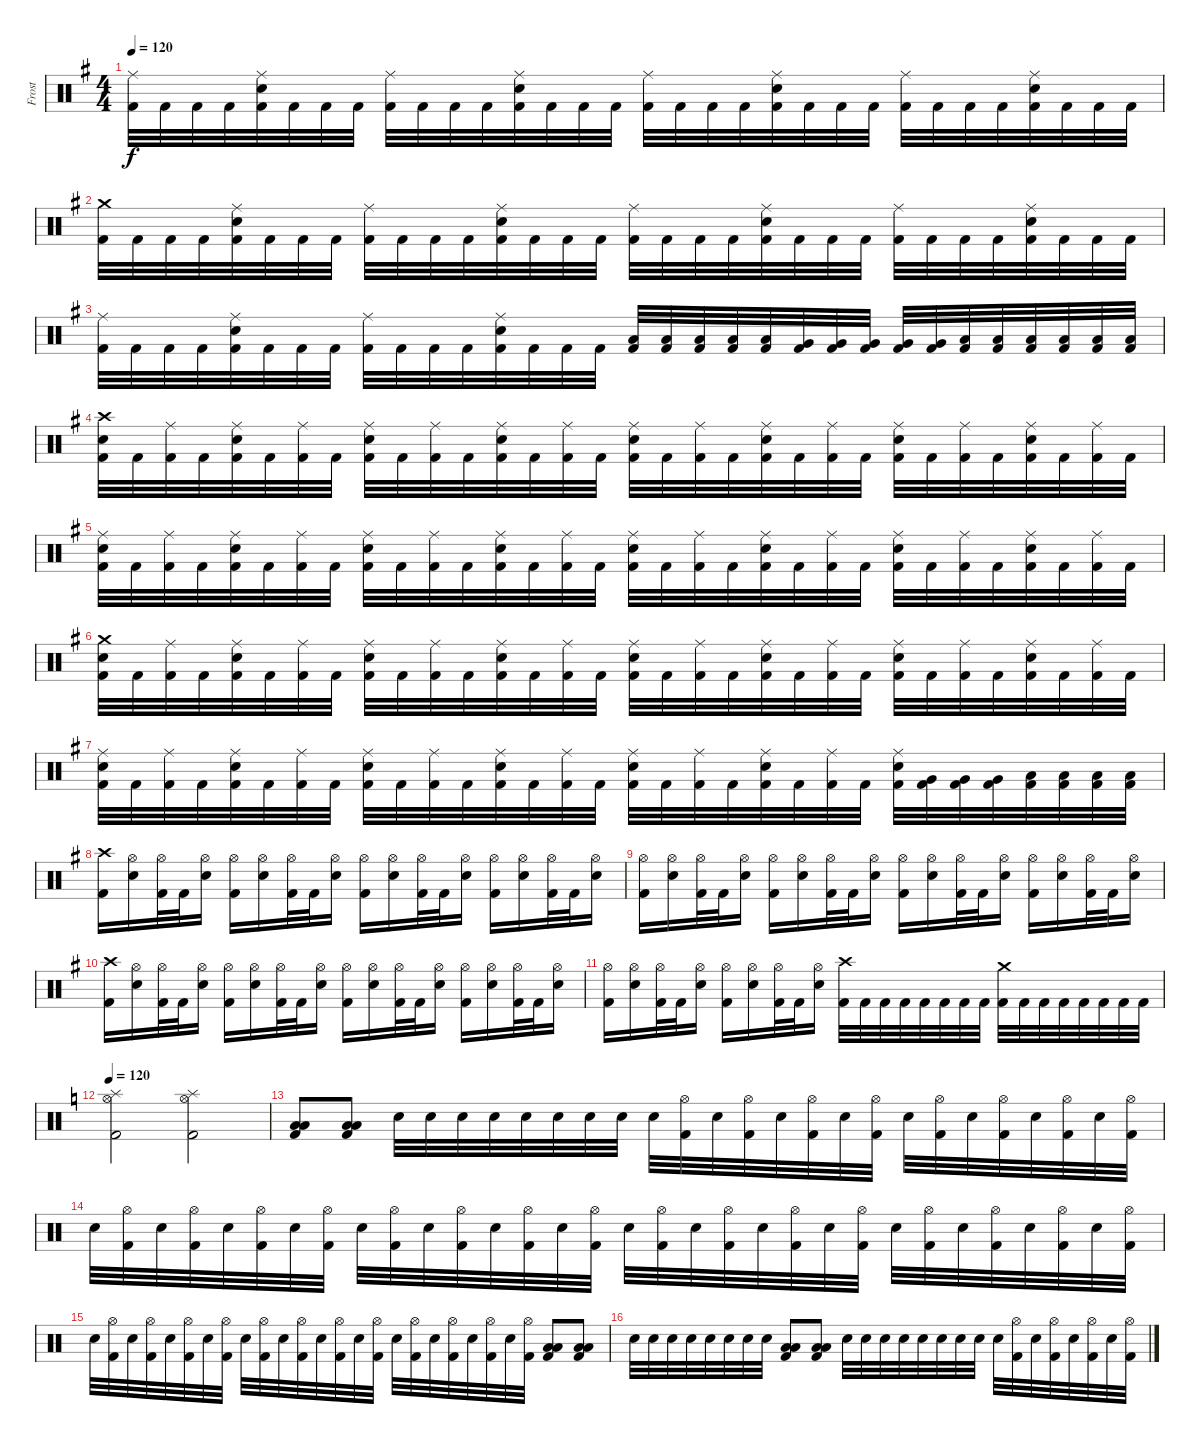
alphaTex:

\track ("Frost" "Frost") {instrument percussion}
\staff {score}
\articulation defaults
\ts (4 4)
\tempo 120
\clef neutral
\ks g
("Ride (middle)" "Kick (hit) 2").32{dy f} "Kick (hit) 2".32 "Kick (hit) 2".32 "Kick (hit) 2".32 ("Ride (middle)" "Snare (hit) 2" "Kick (hit) 2").32 "Kick (hit) 2".32 "Kick (hit) 2".32 "Kick (hit) 2".32 ("Ride (middle)" "Kick (hit) 2").32 "Kick (hit) 2".32 "Kick (hit) 2".32 "Kick (hit) 2".32 ("Ride (middle)" "Snare (hit) 2" "Kick (hit) 2").32 "Kick (hit) 2".32 "Kick (hit) 2".32 "Kick (hit) 2".32 ("Ride (middle)" "Kick (hit) 2").32 "Kick (hit) 2".32 "Kick (hit) 2".32 "Kick (hit) 2".32 ("Ride (middle)" "Snare (hit) 2" "Kick (hit) 2").32 "Kick (hit) 2".32 "Kick (hit) 2".32 "Kick (hit) 2".32 ("Ride (middle)" "Kick (hit) 2").32 "Kick (hit) 2".32 "Kick (hit) 2".32 "Kick (hit) 2".32 ("Ride (middle)" "Snare (hit) 2" "Kick (hit) 2").32 "Kick (hit) 2".32 "Kick (hit) 2".32 "Kick (hit) 2".32 |
("Crash medium (hit)" "Kick (hit) 2").32 "Kick (hit) 2".32 "Kick (hit) 2".32 "Kick (hit) 2".32 ("Ride (middle)" "Snare (hit) 2" "Kick (hit) 2").32 "Kick (hit) 2".32 "Kick (hit) 2".32 "Kick (hit) 2".32 ("Ride (middle)" "Kick (hit) 2").32 "Kick (hit) 2".32 "Kick (hit) 2".32 "Kick (hit) 2".32 ("Ride (middle)" "Snare (hit) 2" "Kick (hit) 2").32 "Kick (hit) 2".32 "Kick (hit) 2".32 "Kick (hit) 2".32 ("Ride (middle)" "Kick (hit) 2").32 "Kick (hit) 2".32 "Kick (hit) 2".32 "Kick (hit) 2".32 ("Ride (middle)" "Snare (hit) 2" "Kick (hit) 2").32 "Kick (hit) 2".32 "Kick (hit) 2".32 "Kick (hit) 2".32 ("Ride (middle)" "Kick (hit) 2").32 "Kick (hit) 2".32 "Kick (hit) 2".32 "Kick (hit) 2".32 ("Ride (middle)" "Snare (hit) 2" "Kick (hit) 2").32 "Kick (hit) 2".32 "Kick (hit) 2".32 "Kick (hit) 2".32 |
("Ride (middle)" "Kick (hit) 2").32 "Kick (hit) 2".32 "Kick (hit) 2".32 "Kick (hit) 2".32 ("Ride (middle)" "Snare (hit) 2" "Kick (hit) 2").32 "Kick (hit) 2".32 "Kick (hit) 2".32 "Kick (hit) 2".32 ("Ride (middle)" "Kick (hit) 2").32 "Kick (hit) 2".32 "Kick (hit) 2".32 "Kick (hit) 2".32 ("Ride (middle)" "Snare (hit) 2" "Kick (hit) 2").32 "Kick (hit) 2".32 "Kick (hit) 2".32 "Kick (hit) 2".32 ("Low Tom (hit)" "Kick (hit) 2").32 ("Low Tom (hit)" "Kick (hit) 2").32 ("Low Tom (hit)" "Kick (hit) 2").32 ("Low Tom (hit)" "Kick (hit) 2").32 ("Low Tom (hit)" "Kick (hit) 2").32 ("Very Low Tom (hit)" "Kick (hit) 2").32 ("Very Low Tom (hit)" "Kick (hit) 2").32 ("Very Low Tom (hit)" "Kick (hit) 2").32 ("Very Low Tom (hit)" "Kick (hit) 2").32 ("Very Low Tom (hit)" "Kick (hit) 2").32 ("Low Floor Tom (hit)" "Kick (hit) 2").32 ("Low Floor Tom (hit)" "Kick (hit) 2").32 ("Low Floor Tom (hit)" "Kick (hit) 2").32 ("Low Floor Tom (hit)" "Kick (hit) 2").32 ("Low Floor Tom (hit)" "Kick (hit) 2").32 ("Low Floor Tom (hit)" "Kick (hit) 2").32 |
("Crash high (hit)" "Snare (hit) 2" "Kick (hit) 2").32 "Kick (hit) 2".32 ("Ride (middle)" "Kick (hit) 2").32 "Kick (hit) 2".32 ("Ride (middle)" "Snare (hit) 2" "Kick (hit) 2").32 "Kick (hit) 2".32 ("Ride (middle)" "Kick (hit) 2").32 "Kick (hit) 2".32 ("Ride (middle)" "Snare (hit) 2" "Kick (hit) 2").32 "Kick (hit) 2".32 ("Ride (middle)" "Kick (hit) 2").32 "Kick (hit) 2".32 ("Ride (middle)" "Snare (hit) 2" "Kick (hit) 2").32 "Kick (hit) 2".32 ("Ride (middle)" "Kick (hit) 2").32 "Kick (hit) 2".32 ("Ride (middle)" "Snare (hit) 2" "Kick (hit) 2").32 "Kick (hit) 2".32 ("Ride (middle)" "Kick (hit) 2").32 "Kick (hit) 2".32 ("Ride (middle)" "Snare (hit) 2" "Kick (hit) 2").32 "Kick (hit) 2".32 ("Ride (middle)" "Kick (hit) 2").32 "Kick (hit) 2".32 ("Ride (middle)" "Snare (hit) 2" "Kick (hit) 2").32 "Kick (hit) 2".32 ("Ride (middle)" "Kick (hit) 2").32 "Kick (hit) 2".32 ("Ride (middle)" "Snare (hit) 2" "Kick (hit) 2").32 "Kick (hit) 2".32 ("Ride (middle)" "Kick (hit) 2").32 "Kick (hit) 2".32 |
("Ride (middle)" "Snare (hit) 2" "Kick (hit) 2").32 "Kick (hit) 2".32 ("Ride (middle)" "Kick (hit) 2").32 "Kick (hit) 2".32 ("Ride (middle)" "Snare (hit) 2" "Kick (hit) 2").32 "Kick (hit) 2".32 ("Ride (middle)" "Kick (hit) 2").32 "Kick (hit) 2".32 ("Ride (middle)" "Snare (hit) 2" "Kick (hit) 2").32 "Kick (hit) 2".32 ("Ride (middle)" "Kick (hit) 2").32 "Kick (hit) 2".32 ("Ride (middle)" "Snare (hit) 2" "Kick (hit) 2").32 "Kick (hit) 2".32 ("Ride (middle)" "Kick (hit) 2").32 "Kick (hit) 2".32 ("Ride (middle)" "Snare (hit) 2" "Kick (hit) 2").32 "Kick (hit) 2".32 ("Ride (middle)" "Kick (hit) 2").32 "Kick (hit) 2".32 ("Ride (middle)" "Snare (hit) 2" "Kick (hit) 2").32 "Kick (hit) 2".32 ("Ride (middle)" "Kick (hit) 2").32 "Kick (hit) 2".32 ("Ride (middle)" "Snare (hit) 2" "Kick (hit) 2").32 "Kick (hit) 2".32 ("Ride (middle)" "Kick (hit) 2").32 "Kick (hit) 2".32 ("Ride (middle)" "Snare (hit) 2" "Kick (hit) 2").32 "Kick (hit) 2".32 ("Ride (middle)" "Kick (hit) 2").32 "Kick (hit) 2".32 |
("Crash medium (hit)" "Snare (hit) 2" "Kick (hit) 2").32 "Kick (hit) 2".32 ("Ride (middle)" "Kick (hit) 2").32 "Kick (hit) 2".32 ("Ride (middle)" "Snare (hit) 2" "Kick (hit) 2").32 "Kick (hit) 2".32 ("Ride (middle)" "Kick (hit) 2").32 "Kick (hit) 2".32 ("Ride (middle)" "Snare (hit) 2" "Kick (hit) 2").32 "Kick (hit) 2".32 ("Ride (middle)" "Kick (hit) 2").32 "Kick (hit) 2".32 ("Ride (middle)" "Snare (hit) 2" "Kick (hit) 2").32 "Kick (hit) 2".32 ("Ride (middle)" "Kick (hit) 2").32 "Kick (hit) 2".32 ("Ride (middle)" "Snare (hit) 2" "Kick (hit) 2").32 "Kick (hit) 2".32 ("Ride (middle)" "Kick (hit) 2").32 "Kick (hit) 2".32 ("Ride (middle)" "Snare (hit) 2" "Kick (hit) 2").32 "Kick (hit) 2".32 ("Ride (middle)" "Kick (hit) 2").32 "Kick (hit) 2".32 ("Ride (middle)" "Snare (hit) 2" "Kick (hit) 2").32 "Kick (hit) 2".32 ("Ride (middle)" "Kick (hit) 2").32 "Kick (hit) 2".32 ("Ride (middle)" "Snare (hit) 2" "Kick (hit) 2").32 "Kick (hit) 2".32 ("Ride (middle)" "Kick (hit) 2").32 "Kick (hit) 2".32 |
("Ride (middle)" "Snare (hit) 2" "Kick (hit) 2").32 "Kick (hit) 2".32 ("Ride (middle)" "Kick (hit) 2").32 "Kick (hit) 2".32 ("Ride (middle)" "Snare (hit) 2" "Kick (hit) 2").32 "Kick (hit) 2".32 ("Ride (middle)" "Kick (hit) 2").32 "Kick (hit) 2".32 ("Ride (middle)" "Snare (hit) 2" "Kick (hit) 2").32 "Kick (hit) 2".32 ("Ride (middle)" "Kick (hit) 2").32 "Kick (hit) 2".32 ("Ride (middle)" "Snare (hit) 2" "Kick (hit) 2").32 "Kick (hit) 2".32 ("Ride (middle)" "Kick (hit) 2").32 "Kick (hit) 2".32 ("Ride (middle)" "Snare (hit) 2" "Kick (hit) 2").32 "Kick (hit) 2".32 ("Ride (middle)" "Kick (hit) 2").32 "Kick (hit) 2".32 ("Ride (middle)" "Snare (hit) 2" "Kick (hit) 2").32 "Kick (hit) 2".32 ("Ride (middle)" "Kick (hit) 2").32 "Kick (hit) 2".32 ("Ride (middle)" "Snare (hit) 2" "Kick (hit) 2").32 ("Very Low Tom (hit)" "Kick (hit) 2").32 ("Very Low Tom (hit)" "Kick (hit) 2").32 ("Very Low Tom (hit)" "Kick (hit) 2").32 ("Low Floor Tom (hit)" "Kick (hit) 2").32 ("Low Floor Tom (hit)" "Kick (hit) 2").32 ("Low Floor Tom (hit)" "Kick (hit) 2").32 ("Low Floor Tom (hit)" "Kick (hit) 2").32 |
("Crash high (hit)" "Kick (hit) 2").16 ("Hi-Hat (open)" "Snare (hit) 2").16 ("Hi-Hat (open)" "Kick (hit) 2").32 "Kick (hit) 2".32 ("Hi-Hat (open)" "Snare (hit) 2").16 ("Hi-Hat (open)" "Kick (hit) 2").16 ("Hi-Hat (open)" "Snare (hit) 2").16 ("Hi-Hat (open)" "Kick (hit) 2").32 "Kick (hit) 2".32 ("Hi-Hat (open)" "Snare (hit) 2").16 ("Hi-Hat (open)" "Kick (hit) 2").16 ("Hi-Hat (open)" "Snare (hit) 2").16 ("Hi-Hat (open)" "Kick (hit) 2").32 "Kick (hit) 2".32 ("Hi-Hat (open)" "Snare (hit) 2").16 ("Hi-Hat (open)" "Kick (hit) 2").16 ("Hi-Hat (open)" "Snare (hit) 2").16 ("Hi-Hat (open)" "Kick (hit) 2").32 "Kick (hit) 2".32 ("Hi-Hat (open)" "Snare (hit) 2").16 |
("Hi-Hat (open)" "Kick (hit) 2").16 ("Hi-Hat (open)" "Snare (hit) 2").16 ("Hi-Hat (open)" "Kick (hit) 2").32 "Kick (hit) 2".32 ("Hi-Hat (open)" "Snare (hit) 2").16 ("Hi-Hat (open)" "Kick (hit) 2").16 ("Hi-Hat (open)" "Snare (hit) 2").16 ("Hi-Hat (open)" "Kick (hit) 2").32 "Kick (hit) 2".32 ("Hi-Hat (open)" "Snare (hit) 2").16 ("Hi-Hat (open)" "Kick (hit) 2").16 ("Hi-Hat (open)" "Snare (hit) 2").16 ("Hi-Hat (open)" "Kick (hit) 2").32 "Kick (hit) 2".32 ("Hi-Hat (open)" "Snare (hit) 2").16 ("Hi-Hat (open)" "Kick (hit) 2").16 ("Hi-Hat (open)" "Snare (hit) 2").16 ("Hi-Hat (open)" "Kick (hit) 2").32 "Kick (hit) 2".32 ("Hi-Hat (open)" "Snare (hit) 2").16 |
("Crash high (hit)" "Kick (hit) 2").16 ("Hi-Hat (open)" "Snare (hit) 2").16 ("Hi-Hat (open)" "Kick (hit) 2").32 "Kick (hit) 2".32 ("Hi-Hat (open)" "Snare (hit) 2").16 ("Hi-Hat (open)" "Kick (hit) 2").16 ("Hi-Hat (open)" "Snare (hit) 2").16 ("Hi-Hat (open)" "Kick (hit) 2").32 "Kick (hit) 2".32 ("Hi-Hat (open)" "Snare (hit) 2").16 ("Hi-Hat (open)" "Kick (hit) 2").16 ("Hi-Hat (open)" "Snare (hit) 2").16 ("Hi-Hat (open)" "Kick (hit) 2").32 "Kick (hit) 2".32 ("Hi-Hat (open)" "Snare (hit) 2").16 ("Hi-Hat (open)" "Kick (hit) 2").16 ("Hi-Hat (open)" "Snare (hit) 2").16 ("Hi-Hat (open)" "Kick (hit) 2").32 "Kick (hit) 2".32 ("Hi-Hat (open)" "Snare (hit) 2").16 |
("Hi-Hat (open)" "Kick (hit) 2").16 ("Hi-Hat (open)" "Snare (hit) 2").16 ("Hi-Hat (open)" "Kick (hit) 2").32 "Kick (hit) 2".32 ("Hi-Hat (open)" "Snare (hit) 2").16 ("Hi-Hat (open)" "Kick (hit) 2").16 ("Hi-Hat (open)" "Snare (hit) 2").16 ("Hi-Hat (open)" "Kick (hit) 2").32 "Kick (hit) 2".32 ("Hi-Hat (open)" "Snare (hit) 2").16 ("Crash high (hit)" "Kick (hit) 2").32 "Kick (hit) 2".32 "Kick (hit) 2".32 "Kick (hit) 2".32 "Kick (hit) 2".32 "Kick (hit) 2".32 "Kick (hit) 2".32 "Kick (hit) 2".32 ("Crash medium (hit)" "Kick (hit) 2").32 "Kick (hit) 2".32 "Kick (hit) 2".32 "Kick (hit) 2".32 "Kick (hit) 2".32 "Kick (hit) 2".32 "Kick (hit) 2".32 "Kick (hit) 2".32 |
\tempo 120
\ks c
("Splash (hit)" "Hi-Hat (open)" "Kick (hit) 2").2 ("Splash (hit)" "Hi-Hat (open)" "Kick (hit) 2").2 |
("Low Floor Tom (hit)" "Low Tom (hit)" "Kick (hit) 2").8 ("Low Floor Tom (hit)" "Low Tom (hit)" "Kick (hit) 2").8 "Snare (hit) 2".32 "Snare (hit) 2".32 "Snare (hit) 2".32 "Snare (hit) 2".32 "Snare (hit) 2".32 "Snare (hit) 2".32 "Snare (hit) 2".32 "Snare (hit) 2".32 "Snare (hit) 2".32 ("Hi-Hat (open)" "Kick (hit) 2").32 "Snare (hit) 2".32 ("Hi-Hat (open)" "Kick (hit) 2").32 "Snare (hit) 2".32 ("Hi-Hat (open)" "Kick (hit) 2").32 "Snare (hit) 2".32 ("Hi-Hat (open)" "Kick (hit) 2").32 "Snare (hit) 2".32 ("Hi-Hat (open)" "Kick (hit) 2").32 "Snare (hit) 2".32 ("Hi-Hat (open)" "Kick (hit) 2").32 "Snare (hit) 2".32 ("Hi-Hat (open)" "Kick (hit) 2").32 "Snare (hit) 2".32 ("Hi-Hat (open)" "Kick (hit) 2").32 |
"Snare (hit) 2".32 ("Hi-Hat (open)" "Kick (hit) 2").32 "Snare (hit) 2".32 ("Hi-Hat (open)" "Kick (hit) 2").32 "Snare (hit) 2".32 ("Hi-Hat (open)" "Kick (hit) 2").32 "Snare (hit) 2".32 ("Hi-Hat (open)" "Kick (hit) 2").32 "Snare (hit) 2".32 ("Hi-Hat (open)" "Kick (hit) 2").32 "Snare (hit) 2".32 ("Hi-Hat (open)" "Kick (hit) 2").32 "Snare (hit) 2".32 ("Hi-Hat (open)" "Kick (hit) 2").32 "Snare (hit) 2".32 ("Hi-Hat (open)" "Kick (hit) 2").32 "Snare (hit) 2".32 ("Hi-Hat (open)" "Kick (hit) 2").32 "Snare (hit) 2".32 ("Hi-Hat (open)" "Kick (hit) 2").32 "Snare (hit) 2".32 ("Hi-Hat (open)" "Kick (hit) 2").32 "Snare (hit) 2".32 ("Hi-Hat (open)" "Kick (hit) 2").32 "Snare (hit) 2".32 ("Hi-Hat (open)" "Kick (hit) 2").32 "Snare (hit) 2".32 ("Hi-Hat (open)" "Kick (hit) 2").32 "Snare (hit) 2".32 ("Hi-Hat (open)" "Kick (hit) 2").32 "Snare (hit) 2".32 ("Hi-Hat (open)" "Kick (hit) 2").32 |
"Snare (hit) 2".32 ("Hi-Hat (open)" "Kick (hit) 2").32 "Snare (hit) 2".32 ("Hi-Hat (open)" "Kick (hit) 2").32 "Snare (hit) 2".32 ("Hi-Hat (open)" "Kick (hit) 2").32 "Snare (hit) 2".32 ("Hi-Hat (open)" "Kick (hit) 2").32 "Snare (hit) 2".32 ("Hi-Hat (open)" "Kick (hit) 2").32 "Snare (hit) 2".32 ("Hi-Hat (open)" "Kick (hit) 2").32 "Snare (hit) 2".32 ("Hi-Hat (open)" "Kick (hit) 2").32 "Snare (hit) 2".32 ("Hi-Hat (open)" "Kick (hit) 2").32 "Snare (hit) 2".32 ("Hi-Hat (open)" "Kick (hit) 2").32 "Snare (hit) 2".32 ("Hi-Hat (open)" "Kick (hit) 2").32 "Snare (hit) 2".32 ("Hi-Hat (open)" "Kick (hit) 2").32 "Snare (hit) 2".32 ("Hi-Hat (open)" "Kick (hit) 2").32 ("Low Floor Tom (hit)" "Low Tom (hit)" "Kick (hit) 2").8 ("Low Floor Tom (hit)" "Low Tom (hit)" "Kick (hit) 2").8 |
"Snare (hit) 2".32 "Snare (hit) 2".32 "Snare (hit) 2".32 "Snare (hit) 2".32 "Snare (hit) 2".32 "Snare (hit) 2".32 "Snare (hit) 2".32 "Snare (hit) 2".32 ("Low Floor Tom (hit)" "Low Tom (hit)" "Kick (hit) 2").8 ("Low Floor Tom (hit)" "Low Tom (hit)" "Kick (hit) 2").8 "Snare (hit) 2".32 "Snare (hit) 2".32 "Snare (hit) 2".32 "Snare (hit) 2".32 "Snare (hit) 2".32 "Snare (hit) 2".32 "Snare (hit) 2".32 "Snare (hit) 2".32 "Snare (hit) 2".32 ("Hi-Hat (open)" "Kick (hit) 2").32 "Snare (hit) 2".32 ("Hi-Hat (open)" "Kick (hit) 2").32 "Snare (hit) 2".32 ("Hi-Hat (open)" "Kick (hit) 2").32 "Snare (hit) 2".32 ("Hi-Hat (open)" "Kick (hit) 2").32
